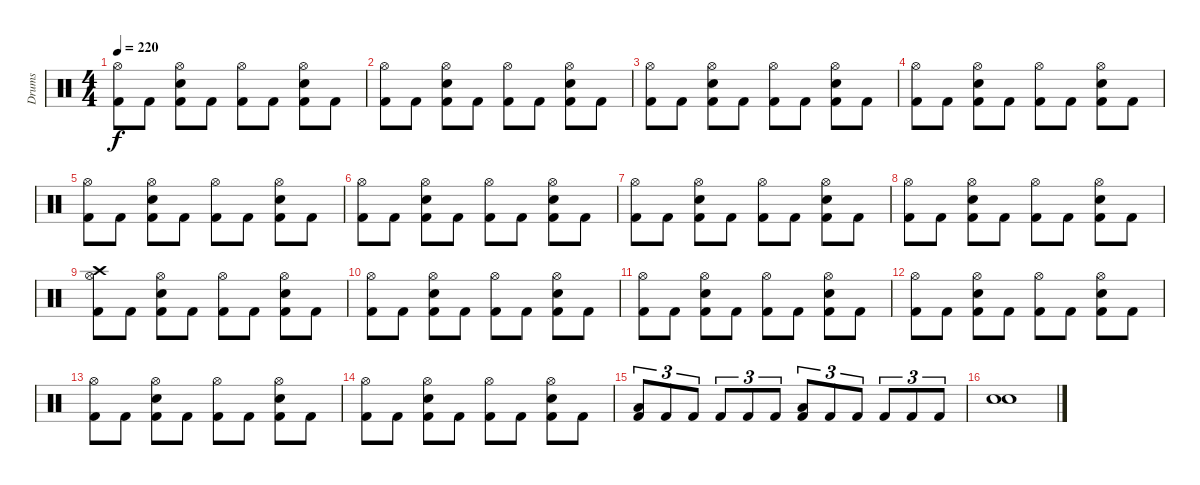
\track ("Drums" "Drums") {instrument percussion}
\staff {score}
\articulation defaults
\ts (4 4)
\tempo 220
\clef neutral
\ks c
("Hi-Hat (open)" "Kick (hit) 2").8{dy f} "Kick (hit) 2".8 ("Electric Snare (hit)" "Hi-Hat (open)" "Kick (hit) 2").8 "Kick (hit) 2".8 ("Hi-Hat (open)" "Kick (hit) 2").8 "Kick (hit) 2".8 ("Electric Snare (hit)" "Hi-Hat (open)" "Kick (hit) 2").8 "Kick (hit) 2".8 |
("Hi-Hat (open)" "Kick (hit) 2").8 "Kick (hit) 2".8 ("Electric Snare (hit)" "Hi-Hat (open)" "Kick (hit) 2").8 "Kick (hit) 2".8 ("Hi-Hat (open)" "Kick (hit) 2").8 "Kick (hit) 2".8 ("Electric Snare (hit)" "Hi-Hat (open)" "Kick (hit) 2").8 "Kick (hit) 2".8 |
("Hi-Hat (open)" "Kick (hit) 2").8 "Kick (hit) 2".8 ("Electric Snare (hit)" "Hi-Hat (open)" "Kick (hit) 2").8 "Kick (hit) 2".8 ("Hi-Hat (open)" "Kick (hit) 2").8 "Kick (hit) 2".8 ("Electric Snare (hit)" "Hi-Hat (open)" "Kick (hit) 2").8 "Kick (hit) 2".8 |
("Hi-Hat (open)" "Kick (hit) 2").8 "Kick (hit) 2".8 ("Electric Snare (hit)" "Hi-Hat (open)" "Kick (hit) 2").8 "Kick (hit) 2".8 ("Hi-Hat (open)" "Kick (hit) 2").8 "Kick (hit) 2".8 ("Electric Snare (hit)" "Hi-Hat (open)" "Kick (hit) 2").8 "Kick (hit) 2".8 |
("Hi-Hat (open)" "Kick (hit) 2").8 "Kick (hit) 2".8 ("Electric Snare (hit)" "Hi-Hat (open)" "Kick (hit) 2").8 "Kick (hit) 2".8 ("Hi-Hat (open)" "Kick (hit) 2").8 "Kick (hit) 2".8 ("Electric Snare (hit)" "Hi-Hat (open)" "Kick (hit) 2").8 "Kick (hit) 2".8 |
("Hi-Hat (open)" "Kick (hit) 2").8 "Kick (hit) 2".8 ("Electric Snare (hit)" "Hi-Hat (open)" "Kick (hit) 2").8 "Kick (hit) 2".8 ("Hi-Hat (open)" "Kick (hit) 2").8 "Kick (hit) 2".8 ("Electric Snare (hit)" "Hi-Hat (open)" "Kick (hit) 2").8 "Kick (hit) 2".8 |
("Hi-Hat (open)" "Kick (hit) 2").8 "Kick (hit) 2".8 ("Electric Snare (hit)" "Hi-Hat (open)" "Kick (hit) 2").8 "Kick (hit) 2".8 ("Hi-Hat (open)" "Kick (hit) 2").8 "Kick (hit) 2".8 ("Electric Snare (hit)" "Hi-Hat (open)" "Kick (hit) 2").8 "Kick (hit) 2".8 |
("Hi-Hat (open)" "Kick (hit) 2").8 "Kick (hit) 2".8 ("Electric Snare (hit)" "Hi-Hat (open)" "Kick (hit) 2").8 "Kick (hit) 2".8 ("Hi-Hat (open)" "Kick (hit) 2").8 "Kick (hit) 2".8 ("Electric Snare (hit)" "Hi-Hat (open)" "Kick (hit) 2").8 "Kick (hit) 2".8 |
("Crash high (hit)" "Hi-Hat (open)" "Kick (hit) 2").8 "Kick (hit) 2".8 ("Electric Snare (hit)" "Hi-Hat (open)" "Kick (hit) 2").8 "Kick (hit) 2".8 ("Hi-Hat (open)" "Kick (hit) 2").8 "Kick (hit) 2".8 ("Electric Snare (hit)" "Hi-Hat (open)" "Kick (hit) 2").8 "Kick (hit) 2".8 |
("Hi-Hat (open)" "Kick (hit) 2").8 "Kick (hit) 2".8 ("Electric Snare (hit)" "Hi-Hat (open)" "Kick (hit) 2").8 "Kick (hit) 2".8 ("Hi-Hat (open)" "Kick (hit) 2").8 "Kick (hit) 2".8 ("Electric Snare (hit)" "Hi-Hat (open)" "Kick (hit) 2").8 "Kick (hit) 2".8 |
("Hi-Hat (open)" "Kick (hit) 2").8 "Kick (hit) 2".8 ("Electric Snare (hit)" "Hi-Hat (open)" "Kick (hit) 2").8 "Kick (hit) 2".8 ("Hi-Hat (open)" "Kick (hit) 2").8 "Kick (hit) 2".8 ("Electric Snare (hit)" "Hi-Hat (open)" "Kick (hit) 2").8 "Kick (hit) 2".8 |
("Hi-Hat (open)" "Kick (hit) 2").8 "Kick (hit) 2".8 ("Electric Snare (hit)" "Hi-Hat (open)" "Kick (hit) 2").8 "Kick (hit) 2".8 ("Hi-Hat (open)" "Kick (hit) 2").8 "Kick (hit) 2".8 ("Electric Snare (hit)" "Hi-Hat (open)" "Kick (hit) 2").8 "Kick (hit) 2".8 |
("Hi-Hat (open)" "Kick (hit) 2").8 "Kick (hit) 2".8 ("Electric Snare (hit)" "Hi-Hat (open)" "Kick (hit) 2").8 "Kick (hit) 2".8 ("Hi-Hat (open)" "Kick (hit) 2").8 "Kick (hit) 2".8 ("Electric Snare (hit)" "Hi-Hat (open)" "Kick (hit) 2").8 "Kick (hit) 2".8 |
("Hi-Hat (open)" "Kick (hit) 2").8 "Kick (hit) 2".8 ("Electric Snare (hit)" "Hi-Hat (open)" "Kick (hit) 2").8 "Kick (hit) 2".8 ("Hi-Hat (open)" "Kick (hit) 2").8 "Kick (hit) 2".8 ("Electric Snare (hit)" "Hi-Hat (open)" "Kick (hit) 2").8 "Kick (hit) 2".8 |
("Low Tom (hit)" "Kick (hit) 2").8{tu (3 2)} "Kick (hit) 2".8{tu (3 2)} "Kick (hit) 2".8{tu (3 2)} "Kick (hit) 2".8{tu (3 2)} "Kick (hit) 2".8{tu (3 2)} "Kick (hit) 2".8{tu (3 2)} ("Low Tom (hit)" "Kick (hit) 2").8{tu (3 2)} "Kick (hit) 2".8{tu (3 2)} "Kick (hit) 2".8{tu (3 2)} "Kick (hit) 2".8{tu (3 2)} "Kick (hit) 2".8{tu (3 2)} "Kick (hit) 2".8{tu (3 2)} |
("Electric Snare (hit)" "Electric Snare (hit)").1
